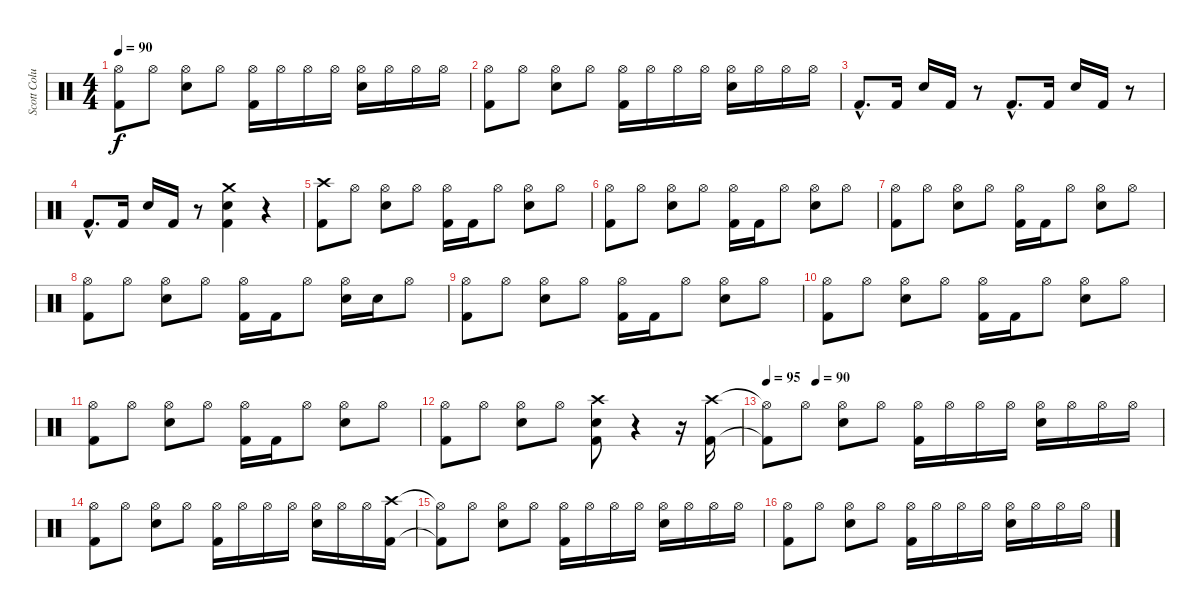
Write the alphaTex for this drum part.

\track ("Scott Columbus" "Scott Colu") {instrument percussion}
\staff {score}
\articulation defaults
\ts (4 4)
\tempo 90
\clef neutral
\ks c
("Hi-Hat (open)"{t} "Kick (hit) 2"{t}).8{dy f} "Hi-Hat (open)".8 ("Hi-Hat (open)" "Snare (hit) 2").8 "Hi-Hat (open)".8 ("Hi-Hat (open)" "Kick (hit) 2").16 "Hi-Hat (open)".16 "Hi-Hat (open)".16 "Hi-Hat (open)".16 ("Hi-Hat (open)" "Snare (hit) 2").16 "Hi-Hat (open)".16 "Hi-Hat (open)".16 "Hi-Hat (open)".16 |
("Hi-Hat (open)" "Kick (hit) 2").8 "Hi-Hat (open)".8 ("Hi-Hat (open)" "Snare (hit) 2").8 "Hi-Hat (open)".8 ("Hi-Hat (open)" "Kick (hit) 2").16 "Hi-Hat (open)".16 "Hi-Hat (open)".16 "Hi-Hat (open)".16 ("Hi-Hat (open)" "Snare (hit) 2").16 "Hi-Hat (open)".16 "Hi-Hat (open)".16 "Hi-Hat (open)".16 |
"Kick (hit) 2"{hac}.8{d} "Kick (hit) 2".16 "Snare (hit) 2".16 "Kick (hit) 2".16 r.8 "Kick (hit) 2"{hac}.8{d} "Kick (hit) 2".16 "Snare (hit) 2".16 "Kick (hit) 2".16 r.8 |
"Kick (hit) 2"{hac}.8{d} "Kick (hit) 2".16 "Snare (hit) 2".16 "Kick (hit) 2".16 r.8 ("Crash medium (hit)" "Snare (hit) 2" "Kick (hit) 2").4 r.4 |
("Crash high (hit)" "Kick (hit) 2").8 "Hi-Hat (open)".8 ("Hi-Hat (open)" "Snare (hit) 2").8 "Hi-Hat (open)".8 ("Hi-Hat (open)" "Kick (hit) 2").16 "Kick (hit) 2".16 "Hi-Hat (open)".8 ("Hi-Hat (open)" "Snare (hit) 2").8 "Hi-Hat (open)".8 |
("Hi-Hat (open)" "Kick (hit) 2").8 "Hi-Hat (open)".8 ("Hi-Hat (open)" "Snare (hit) 2").8 "Hi-Hat (open)".8 ("Hi-Hat (open)" "Kick (hit) 2").16 "Kick (hit) 2".16 "Hi-Hat (open)".8 ("Hi-Hat (open)" "Snare (hit) 2").8 "Hi-Hat (open)".8 |
("Hi-Hat (open)" "Kick (hit) 2").8 "Hi-Hat (open)".8 ("Hi-Hat (open)" "Snare (hit) 2").8 "Hi-Hat (open)".8 ("Hi-Hat (open)" "Kick (hit) 2").16 "Kick (hit) 2".16 "Hi-Hat (open)".8 ("Hi-Hat (open)" "Snare (hit) 2").8 "Hi-Hat (open)".8 |
("Hi-Hat (open)" "Kick (hit) 2").8 "Hi-Hat (open)".8 ("Hi-Hat (open)" "Snare (hit) 2").8 "Hi-Hat (open)".8 ("Hi-Hat (open)" "Kick (hit) 2").16 "Kick (hit) 2".16 "Hi-Hat (open)".8 ("Hi-Hat (open)" "Snare (hit) 2").16 "Snare (hit) 2".16 "Hi-Hat (open)".8 |
("Hi-Hat (open)" "Kick (hit) 2").8 "Hi-Hat (open)".8 ("Hi-Hat (open)" "Snare (hit) 2").8 "Hi-Hat (open)".8 ("Hi-Hat (open)" "Kick (hit) 2").16 "Kick (hit) 2".16 "Hi-Hat (open)".8 ("Hi-Hat (open)" "Snare (hit) 2").8 "Hi-Hat (open)".8 |
("Hi-Hat (open)" "Kick (hit) 2").8 "Hi-Hat (open)".8 ("Hi-Hat (open)" "Snare (hit) 2").8 "Hi-Hat (open)".8 ("Hi-Hat (open)" "Kick (hit) 2").16 "Kick (hit) 2".16 "Hi-Hat (open)".8 ("Hi-Hat (open)" "Snare (hit) 2").8 "Hi-Hat (open)".8 |
("Hi-Hat (open)" "Kick (hit) 2").8 "Hi-Hat (open)".8 ("Hi-Hat (open)" "Snare (hit) 2").8 "Hi-Hat (open)".8 ("Hi-Hat (open)" "Kick (hit) 2").16 "Kick (hit) 2".16 "Hi-Hat (open)".8 ("Hi-Hat (open)" "Snare (hit) 2").8 "Hi-Hat (open)".8 |
("Hi-Hat (open)" "Kick (hit) 2").8 "Hi-Hat (open)".8 ("Hi-Hat (open)" "Snare (hit) 2").8 "Hi-Hat (open)".8 ("Crash high (hit)" "Snare (hit) 2" "Kick (hit) 2").8 r.4 r.16 ("Crash high (hit)" "Kick (hit) 2").16 |
\tempo 95
\tempo (90 0.125)
("Hi-Hat (open)"{t} "Kick (hit) 2"{t}).8 "Hi-Hat (open)".8 ("Hi-Hat (open)" "Snare (hit) 2").8 "Hi-Hat (open)".8 ("Hi-Hat (open)" "Kick (hit) 2").16 "Hi-Hat (open)".16 "Hi-Hat (open)".16 "Hi-Hat (open)".16 ("Hi-Hat (open)" "Snare (hit) 2").16 "Hi-Hat (open)".16 "Hi-Hat (open)".16 "Hi-Hat (open)".16 |
("Hi-Hat (open)" "Kick (hit) 2").8 "Hi-Hat (open)".8 ("Hi-Hat (open)" "Snare (hit) 2").8 "Hi-Hat (open)".8 ("Hi-Hat (open)" "Kick (hit) 2").16 "Hi-Hat (open)".16 "Hi-Hat (open)".16 "Hi-Hat (open)".16 ("Hi-Hat (open)" "Snare (hit) 2").16 "Hi-Hat (open)".16 "Hi-Hat (open)".16 ("Crash high (hit)" "Kick (hit) 2").16 |
("Hi-Hat (open)"{t} "Kick (hit) 2"{t}).8 "Hi-Hat (open)".8 ("Hi-Hat (open)" "Snare (hit) 2").8 "Hi-Hat (open)".8 ("Hi-Hat (open)" "Kick (hit) 2").16 "Hi-Hat (open)".16 "Hi-Hat (open)".16 "Hi-Hat (open)".16 ("Hi-Hat (open)" "Snare (hit) 2").16 "Hi-Hat (open)".16 "Hi-Hat (open)".16 "Hi-Hat (open)".16 |
("Hi-Hat (open)" "Kick (hit) 2").8 "Hi-Hat (open)".8 ("Hi-Hat (open)" "Snare (hit) 2").8 "Hi-Hat (open)".8 ("Hi-Hat (open)" "Kick (hit) 2").16 "Hi-Hat (open)".16 "Hi-Hat (open)".16 "Hi-Hat (open)".16 ("Hi-Hat (open)" "Snare (hit) 2").16 "Hi-Hat (open)".16 "Hi-Hat (open)".16 "Hi-Hat (open)".16
